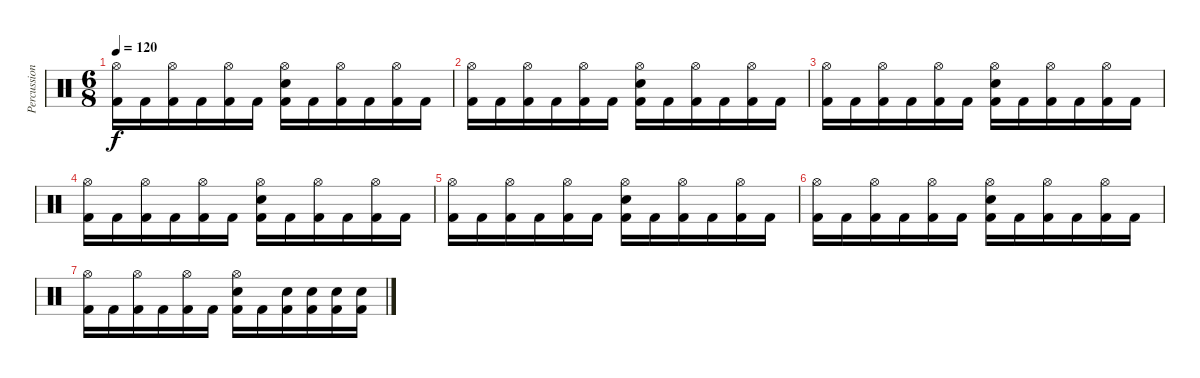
\track ("Percussion" "Percussion") {instrument percussion}
\staff {score}
\articulation defaults
\ts (6 8)
\tempo 120
\clef neutral
\ks c
("Hi-Hat (open)" "Kick (hit) 2").16{dy f} "Kick (hit) 2".16 ("Hi-Hat (open)" "Kick (hit) 2").16 "Kick (hit) 2".16 ("Hi-Hat (open)" "Kick (hit) 2").16 "Kick (hit) 2".16 ("Hi-Hat (open)" "Electric Snare (hit)" "Kick (hit) 2").16 "Kick (hit) 2".16 ("Hi-Hat (open)" "Kick (hit) 2").16 "Kick (hit) 2".16 ("Hi-Hat (open)" "Kick (hit) 2").16 "Kick (hit) 2".16 |
("Hi-Hat (open)" "Kick (hit) 2").16 "Kick (hit) 2".16 ("Hi-Hat (open)" "Kick (hit) 2").16 "Kick (hit) 2".16 ("Hi-Hat (open)" "Kick (hit) 2").16 "Kick (hit) 2".16 ("Hi-Hat (open)" "Electric Snare (hit)" "Kick (hit) 2").16 "Kick (hit) 2".16 ("Hi-Hat (open)" "Kick (hit) 2").16 "Kick (hit) 2".16 ("Hi-Hat (open)" "Kick (hit) 2").16 "Kick (hit) 2".16 |
("Hi-Hat (open)" "Kick (hit) 2").16 "Kick (hit) 2".16 ("Hi-Hat (open)" "Kick (hit) 2").16 "Kick (hit) 2".16 ("Hi-Hat (open)" "Kick (hit) 2").16 "Kick (hit) 2".16 ("Hi-Hat (open)" "Electric Snare (hit)" "Kick (hit) 2").16 "Kick (hit) 2".16 ("Hi-Hat (open)" "Kick (hit) 2").16 "Kick (hit) 2".16 ("Hi-Hat (open)" "Kick (hit) 2").16 "Kick (hit) 2".16 |
("Hi-Hat (open)" "Kick (hit) 2").16 "Kick (hit) 2".16 ("Hi-Hat (open)" "Kick (hit) 2").16 "Kick (hit) 2".16 ("Hi-Hat (open)" "Kick (hit) 2").16 "Kick (hit) 2".16 ("Hi-Hat (open)" "Electric Snare (hit)" "Kick (hit) 2").16 "Kick (hit) 2".16 ("Hi-Hat (open)" "Kick (hit) 2").16 "Kick (hit) 2".16 ("Hi-Hat (open)" "Kick (hit) 2").16 "Kick (hit) 2".16 |
("Hi-Hat (open)" "Kick (hit) 2").16 "Kick (hit) 2".16 ("Hi-Hat (open)" "Kick (hit) 2").16 "Kick (hit) 2".16 ("Hi-Hat (open)" "Kick (hit) 2").16 "Kick (hit) 2".16 ("Hi-Hat (open)" "Electric Snare (hit)" "Kick (hit) 2").16 "Kick (hit) 2".16 ("Hi-Hat (open)" "Kick (hit) 2").16 "Kick (hit) 2".16 ("Hi-Hat (open)" "Kick (hit) 2").16 "Kick (hit) 2".16 |
("Hi-Hat (open)" "Kick (hit) 2").16 "Kick (hit) 2".16 ("Hi-Hat (open)" "Kick (hit) 2").16 "Kick (hit) 2".16 ("Hi-Hat (open)" "Kick (hit) 2").16 "Kick (hit) 2".16 ("Hi-Hat (open)" "Electric Snare (hit)" "Kick (hit) 2").16 "Kick (hit) 2".16 ("Hi-Hat (open)" "Kick (hit) 2").16 "Kick (hit) 2".16 ("Hi-Hat (open)" "Kick (hit) 2").16 "Kick (hit) 2".16 |
("Hi-Hat (open)" "Kick (hit) 2").16 "Kick (hit) 2".16 ("Hi-Hat (open)" "Kick (hit) 2").16 "Kick (hit) 2".16 ("Hi-Hat (open)" "Kick (hit) 2").16 "Kick (hit) 2".16 ("Hi-Hat (open)" "Electric Snare (hit)" "Kick (hit) 2").16 "Kick (hit) 2".16 ("Electric Snare (hit)" "Kick (hit) 2").16 ("Electric Snare (hit)" "Kick (hit) 2").16 ("Electric Snare (hit)" "Kick (hit) 2").16 ("Electric Snare (hit)" "Kick (hit) 2").16
